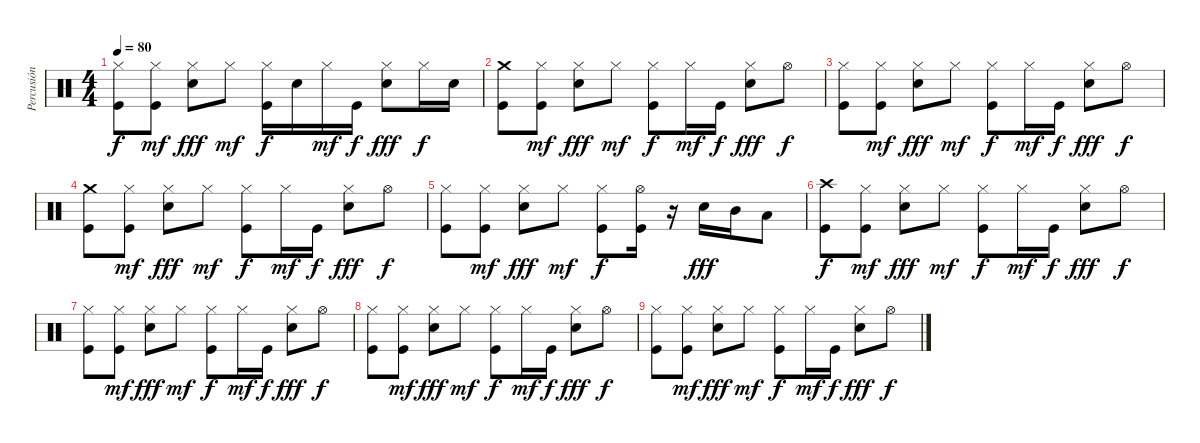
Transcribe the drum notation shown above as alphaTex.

\track ("Percusión" "Percusión") {instrument percussion}
\staff {score}
\articulation defaults
\ts (4 4)
\tempo 80
\clef neutral
\ks c
("Kick (hit)" "Hi-Hat (closed)").8{dy f} ("Kick (hit)" "Hi-Hat (closed)").8{dy mf} ("Snare (hit) 2" "Hi-Hat (closed)").8{dy fff} "Hi-Hat (closed)".8{dy mf} ("Kick (hit)" "Hi-Hat (closed)").16{dy f} "Snare (hit) 2".16 "Hi-Hat (closed)".16{dy mf} "Kick (hit)".16{dy f} ("Snare (hit) 2" "Hi-Hat (closed)").8{dy fff} "Hi-Hat (closed)".16{dy f} "Snare (hit) 2".16 |
("Kick (hit)" "Crash medium (hit)").8 ("Kick (hit)" "Hi-Hat (closed)").8{dy mf} ("Snare (hit) 2" "Hi-Hat (closed)").8{dy fff} "Hi-Hat (closed)".8{dy mf} ("Kick (hit)" "Hi-Hat (closed)").8{dy f} "Hi-Hat (closed)".16{dy mf} "Kick (hit)".16{dy f} ("Snare (hit) 2" "Hi-Hat (closed)").8{dy fff} "Hi-Hat (open)".8{dy f} |
("Kick (hit)" "Hi-Hat (closed)").8 ("Kick (hit)" "Hi-Hat (closed)").8{dy mf} ("Snare (hit) 2" "Hi-Hat (closed)").8{dy fff} "Hi-Hat (closed)".8{dy mf} ("Kick (hit)" "Hi-Hat (closed)").8{dy f} "Hi-Hat (closed)".16{dy mf} "Kick (hit)".16{dy f} ("Snare (hit) 2" "Hi-Hat (closed)").8{dy fff} "Hi-Hat (open)".8{dy f} |
("Kick (hit)" "Crash medium (hit)").8 ("Kick (hit)" "Hi-Hat (closed)").8{dy mf} ("Snare (hit) 2" "Hi-Hat (closed)").8{dy fff} "Hi-Hat (closed)".8{dy mf} ("Kick (hit)" "Hi-Hat (closed)").8{dy f} "Hi-Hat (closed)".16{dy mf} "Kick (hit)".16{dy f} ("Snare (hit) 2" "Hi-Hat (closed)").8{dy fff} "Hi-Hat (open)".8{dy f} |
("Kick (hit)" "Hi-Hat (closed)").8 ("Kick (hit)" "Hi-Hat (closed)").8{dy mf} ("Snare (hit) 2" "Hi-Hat (closed)").8{dy fff} "Hi-Hat (closed)".8{dy mf} ("Kick (hit)" "Hi-Hat (closed)").8{dy f} ("Kick (hit)" "Hi-Hat (open)").16 r.16 "Snare (hit) 2".16{dy fff} "Mid Tom (hit)".16 "Low Floor Tom (hit)".8 |
("Kick (hit)" "Crash high (hit)").8{dy f} ("Kick (hit)" "Hi-Hat (closed)").8{dy mf} ("Snare (hit) 2" "Hi-Hat (closed)").8{dy fff} "Hi-Hat (closed)".8{dy mf} ("Kick (hit)" "Hi-Hat (closed)").8{dy f} "Hi-Hat (closed)".16{dy mf} "Kick (hit)".16{dy f} ("Snare (hit) 2" "Hi-Hat (closed)").8{dy fff} "Hi-Hat (open)".8{dy f} |
("Kick (hit)" "Hi-Hat (closed)").8 ("Kick (hit)" "Hi-Hat (closed)").8{dy mf} ("Snare (hit) 2" "Hi-Hat (closed)").8{dy fff} "Hi-Hat (closed)".8{dy mf} ("Kick (hit)" "Hi-Hat (closed)").8{dy f} "Hi-Hat (closed)".16{dy mf} "Kick (hit)".16{dy f} ("Snare (hit) 2" "Hi-Hat (closed)").8{dy fff} "Hi-Hat (open)".8{dy f} |
("Kick (hit)" "Hi-Hat (closed)").8 ("Kick (hit)" "Hi-Hat (closed)").8{dy mf} ("Snare (hit) 2" "Hi-Hat (closed)").8{dy fff} "Hi-Hat (closed)".8{dy mf} ("Kick (hit)" "Hi-Hat (closed)").8{dy f} "Hi-Hat (closed)".16{dy mf} "Kick (hit)".16{dy f} ("Snare (hit) 2" "Hi-Hat (closed)").8{dy fff} "Hi-Hat (open)".8{dy f} |
("Kick (hit)" "Hi-Hat (closed)").8 ("Kick (hit)" "Hi-Hat (closed)").8{dy mf} ("Snare (hit) 2" "Hi-Hat (closed)").8{dy fff} "Hi-Hat (closed)".8{dy mf} ("Kick (hit)" "Hi-Hat (closed)").8{dy f} "Hi-Hat (closed)".16{dy mf} "Kick (hit)".16{dy f} ("Snare (hit) 2" "Hi-Hat (closed)").8{dy fff} "Hi-Hat (open)".8{dy f}
